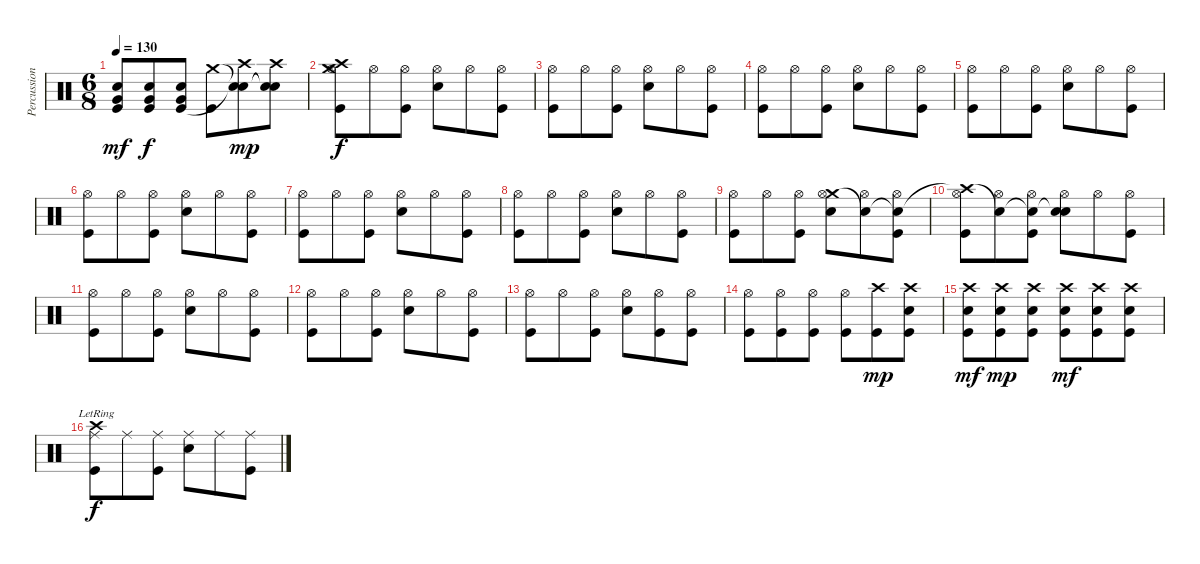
\track ("Percussion" "Percussion") {instrument percussion}
\staff {score}
\articulation defaults
\ts (6 8)
\tempo 130
\clef neutral
\ks c
("Very Low Tom (hit)" "Snare (hit) 2" "Kick (hit)").8{dy mf} ("Very Low Tom (hit)" "Snare (hit) 2" "Kick (hit)").8{dy f} ("Very Low Tom (hit)" "Snare (hit) 2" "Kick (hit)").8 ("Crash medium (hit)" "Kick (hit)").8 ("Snare (hit)"{t} "Crash high (hit)" "Snare (hit)"{t}).8{dy mp} ("Snare (hit)"{t} "Crash high (hit)" "Snare (hit)"{t}).8 |
("Crash high (hit)" "Crash medium (hit)" "Hi-Hat (open)" "Kick (hit)").8{dy f} "Hi-Hat (open)".8 ("Hi-Hat (open)" "Kick (hit)").8 ("Hi-Hat (open)" "Snare (hit) 2").8 "Hi-Hat (open)".8 ("Hi-Hat (open)" "Kick (hit)").8 |
("Hi-Hat (open)" "Kick (hit)").8 "Hi-Hat (open)".8 ("Hi-Hat (open)" "Kick (hit)").8 ("Hi-Hat (open)" "Snare (hit) 2").8 "Hi-Hat (open)".8 ("Hi-Hat (open)" "Kick (hit)").8 |
("Hi-Hat (open)" "Kick (hit)").8 "Hi-Hat (open)".8 ("Hi-Hat (open)" "Kick (hit)").8 ("Hi-Hat (open)" "Snare (hit) 2").8 "Hi-Hat (open)".8 ("Hi-Hat (open)" "Kick (hit)").8 |
("Hi-Hat (open)" "Kick (hit)").8 "Hi-Hat (open)".8 ("Hi-Hat (open)" "Kick (hit)").8 ("Hi-Hat (open)" "Snare (hit) 2").8 "Hi-Hat (open)".8 ("Hi-Hat (open)" "Kick (hit)").8 |
("Hi-Hat (open)" "Kick (hit)").8 "Hi-Hat (open)".8 ("Hi-Hat (open)" "Kick (hit)").8 ("Hi-Hat (open)" "Snare (hit) 2").8 "Hi-Hat (open)".8 ("Hi-Hat (open)" "Kick (hit)").8 |
("Hi-Hat (open)" "Kick (hit)").8 "Hi-Hat (open)".8 ("Hi-Hat (open)" "Kick (hit)").8 ("Hi-Hat (open)" "Snare (hit) 2").8 "Hi-Hat (open)".8 ("Hi-Hat (open)" "Kick (hit)").8 |
("Hi-Hat (open)" "Kick (hit)").8 "Hi-Hat (open)".8 ("Hi-Hat (open)" "Kick (hit)").8 ("Hi-Hat (open)" "Snare (hit) 2").8 "Hi-Hat (open)".8 ("Hi-Hat (open)" "Kick (hit)").8 |
("Hi-Hat (open)" "Kick (hit)").8 "Hi-Hat (open)".8 ("Hi-Hat (open)" "Kick (hit)").8 ("Crash medium (hit)" "Hi-Hat (open)" "Snare (hit) 2").8 ("Snare (hit)"{t} "Hi-Hat (open)").8 ("Snare (hit)"{t} "Hi-Hat (open)" "Kick (hit)").8 |
("Crash high (hit)"{t} "Hi-Hat (open)" "Kick (hit)").8 ("Snare (hit)"{t} "Hi-Hat (open)").8 ("Snare (hit)"{t} "Hi-Hat (open)" "Kick (hit)").8 ("Snare (hit)"{t} "Hi-Hat (open)" "Snare (hit) 2").8 "Hi-Hat (open)".8 ("Hi-Hat (open)" "Kick (hit)").8 |
("Hi-Hat (open)" "Kick (hit)").8 "Hi-Hat (open)".8 ("Hi-Hat (open)" "Kick (hit)").8 ("Hi-Hat (open)" "Snare (hit) 2").8 "Hi-Hat (open)".8 ("Hi-Hat (open)" "Kick (hit)").8 |
("Hi-Hat (open)" "Kick (hit)").8 "Hi-Hat (open)".8 ("Hi-Hat (open)" "Kick (hit)").8 ("Hi-Hat (open)" "Snare (hit) 2").8 "Hi-Hat (open)".8 ("Hi-Hat (open)" "Kick (hit)").8 |
("Hi-Hat (open)" "Kick (hit)").8 "Hi-Hat (open)".8 ("Hi-Hat (open)" "Kick (hit)").8 ("Hi-Hat (open)" "Snare (hit) 2").8 ("Hi-Hat (open)" "Kick (hit)").8 ("Hi-Hat (open)" "Kick (hit)").8 |
("Hi-Hat (open)" "Kick (hit)").8 ("Hi-Hat (open)" "Kick (hit)").8 ("Hi-Hat (open)" "Kick (hit)").8 ("Hi-Hat (open)" "Kick (hit)").8 ("Crash high (hit)" "Kick (hit)").8{dy mp} ("Crash high (hit)" "Snare (hit) 2" "Kick (hit)").8 |
("Crash high (hit)" "Snare (hit) 2" "Kick (hit)").8{dy mf} ("Crash high (hit)" "Snare (hit) 2" "Kick (hit)").8{dy mp} ("Crash high (hit)" "Snare (hit) 2" "Kick (hit)").8 ("Crash high (hit)" "Snare (hit) 2" "Kick (hit)").8{dy mf} ("Crash high (hit)" "Snare (hit) 2" "Kick (hit)").8 ("Crash high (hit)" "Snare (hit) 2" "Kick (hit)").8 |
("Crash high (hit)"{lr} "Ride (middle)" "Kick (hit)").8{dy f} "Ride (middle)".8 ("Ride (middle)" "Kick (hit)").8 ("Ride (middle)" "Snare (hit) 2").8 "Ride (middle)".8 ("Ride (middle)" "Kick (hit)").8
